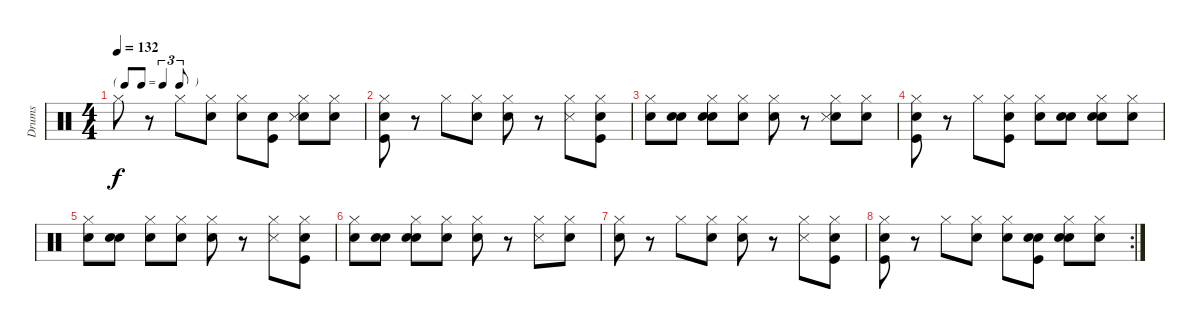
\track ("Drums" "Drums") {instrument percussion}
\staff {score}
\articulation defaults
\ts (4 4)
\tf triplet8th
\tempo 132
\clef neutral
\ks c "Hi-Hat (closed)".8{dy f}
r.8 "Hi-Hat (closed)".8 ("Snare (hit)" "Hi-Hat (closed)").8 ("Snare (hit)" "Hi-Hat (closed)").8 ("Snare (hit)" "Kick (hit)").8 ("Snare (hit)" "Hi-Hat (closed)" "Snare (side stick) 3").8 ("Snare (hit)" "Hi-Hat (closed)").8 |
("Snare (hit)" "Kick (hit)" "Hi-Hat (closed)").8 r.8 "Hi-Hat (closed)".8 ("Snare (hit)" "Hi-Hat (closed)").8 ("Snare (hit)" "Hi-Hat (closed)").8 r.8 ("Hi-Hat (closed)" "Snare (side stick) 3").8 ("Snare (hit)" "Kick (hit)" "Hi-Hat (closed)").8 |
("Snare (hit)" "Hi-Hat (closed)").8 ("Snare (hit)" "Snare (hit) 2").8 ("Snare (hit)" "Snare (hit) 2" "Hi-Hat (closed)").8 ("Snare (hit)" "Hi-Hat (closed)").8 ("Snare (hit)" "Hi-Hat (closed)").8 r.8 ("Snare (hit) 2" "Hi-Hat (closed)" "Snare (side stick) 3").8 ("Snare (hit)" "Hi-Hat (closed)").8 |
("Snare (hit)" "Kick (hit)" "Hi-Hat (closed)").8 r.8 "Hi-Hat (closed)".8 ("Snare (hit)" "Kick (hit)" "Hi-Hat (closed)").8 ("Snare (hit)" "Hi-Hat (closed)").8 ("Snare (hit)" "Snare (hit) 2").8 ("Snare (hit)" "Snare (hit) 2" "Hi-Hat (closed)").8 ("Snare (hit)" "Hi-Hat (closed)").8 |
("Snare (hit)" "Hi-Hat (closed)").8 ("Snare (hit)" "Snare (hit) 2").8 ("Snare (hit)" "Hi-Hat (closed)").8 ("Snare (hit)" "Hi-Hat (closed)").8 ("Snare (hit)" "Hi-Hat (closed)").8 r.8 ("Hi-Hat (closed)" "Snare (side stick) 3").8 ("Snare (hit)" "Kick (hit)" "Hi-Hat (closed)").8 |
("Snare (hit)" "Hi-Hat (closed)").8 ("Snare (hit)" "Snare (hit) 2").8 ("Snare (hit)" "Snare (hit) 2" "Hi-Hat (closed)").8 ("Snare (hit)" "Hi-Hat (closed)").8 ("Snare (hit)" "Hi-Hat (closed)").8 r.8 ("Hi-Hat (closed)" "Snare (side stick) 3").8 ("Snare (hit)" "Hi-Hat (closed)").8 |
("Snare (hit)" "Hi-Hat (closed)").8 r.8 "Hi-Hat (closed)".8 ("Snare (hit)" "Hi-Hat (closed)").8 ("Snare (hit)" "Hi-Hat (closed)").8 r.8 ("Hi-Hat (closed)" "Snare (side stick) 3").8 ("Snare (hit)" "Kick (hit)" "Hi-Hat (closed)").8 |
\rc 2
("Snare (hit)" "Kick (hit)" "Hi-Hat (closed)").8 r.8 "Hi-Hat (closed)".8 ("Snare (hit)" "Hi-Hat (closed)").8 ("Snare (hit)" "Hi-Hat (closed)").8 ("Snare (hit)" "Kick (hit)" "Snare (hit) 2").8 ("Snare (hit)" "Snare (hit) 2" "Hi-Hat (closed)").8 ("Snare (hit)" "Hi-Hat (closed)").8
